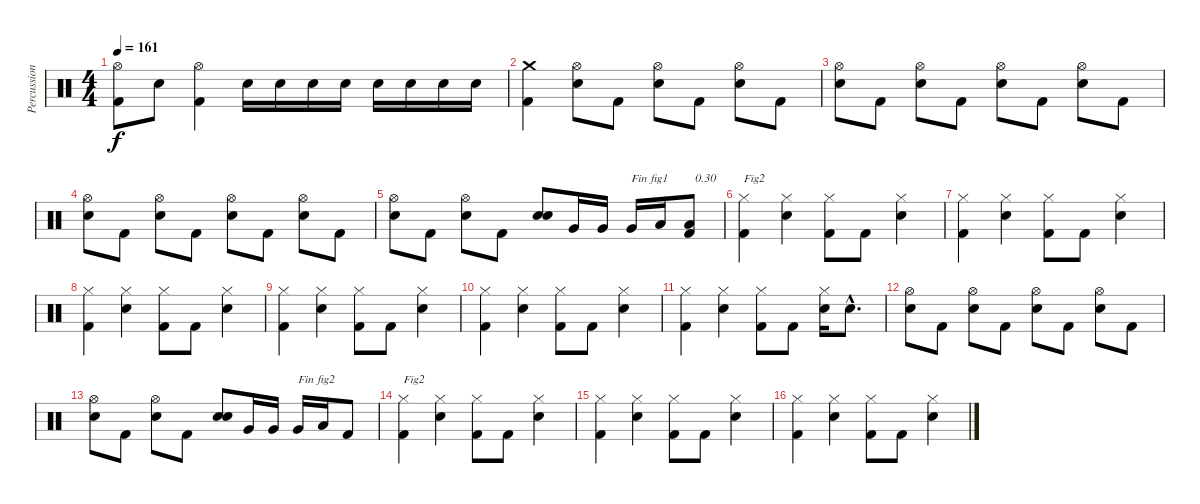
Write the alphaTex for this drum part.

\track ("Percussions" "Percussion") {instrument percussion}
\staff {score}
\articulation defaults
\ts (4 4)
\tempo 161
\clef neutral
\ks c
("Kick (hit) 2" "Hi-Hat (open)").8{dy f} "Electric Snare (hit)".8 ("Kick (hit) 2" "Hi-Hat (open)").4 "Electric Snare (hit)".16 "Electric Snare (hit)".16 "Electric Snare (hit)".16 "Electric Snare (hit)".16 "Electric Snare (hit)".16 "Electric Snare (hit)".16 "Electric Snare (hit)".16 "Electric Snare (hit)".16 |
("Kick (hit) 2" "Crash medium (hit)").4 ("Electric Snare (hit)" "Hi-Hat (open)").8 "Kick (hit) 2".8 ("Electric Snare (hit)" "Hi-Hat (open)").8 "Kick (hit) 2".8 ("Electric Snare (hit)" "Hi-Hat (open)").8 "Kick (hit) 2".8 |
("Electric Snare (hit)" "Hi-Hat (open)").8 "Kick (hit) 2".8 ("Electric Snare (hit)" "Hi-Hat (open)").8 "Kick (hit) 2".8 ("Electric Snare (hit)" "Hi-Hat (open)").8 "Kick (hit) 2".8 ("Electric Snare (hit)" "Hi-Hat (open)").8 "Kick (hit) 2".8 |
("Electric Snare (hit)" "Hi-Hat (open)").8 "Kick (hit) 2".8 ("Electric Snare (hit)" "Hi-Hat (open)").8 "Kick (hit) 2".8 ("Electric Snare (hit)" "Hi-Hat (open)").8 "Kick (hit) 2".8 ("Electric Snare (hit)" "Hi-Hat (open)").8 "Kick (hit) 2".8 |
("Electric Snare (hit)" "Hi-Hat (open)").8 "Kick (hit) 2".8 ("Electric Snare (hit)" "Hi-Hat (open)").8 "Kick (hit) 2".8 ("Electric Snare (hit)" "Electric Snare (hit)").8 "Very Low Tom (hit)".16 "Very Low Tom (hit)".16 "Very Low Tom (hit)".16{txt "Fin fig1"} "Low Tom (hit)".16 ("Kick (hit) 2" "Low Tom (hit)").8{txt "  0.30"} |
("Kick (hit) 2" "Hi-Hat (closed)").4{txt "Fig2"} ("Electric Snare (hit)" "Hi-Hat (closed)").4 ("Kick (hit) 2" "Hi-Hat (closed)").8 "Kick (hit) 2".8 ("Electric Snare (hit)" "Hi-Hat (closed)").4 |
("Kick (hit) 2" "Hi-Hat (closed)").4 ("Electric Snare (hit)" "Hi-Hat (closed)").4 ("Kick (hit) 2" "Hi-Hat (closed)").8 "Kick (hit) 2".8 ("Electric Snare (hit)" "Hi-Hat (closed)").4 |
("Kick (hit) 2" "Hi-Hat (closed)").4 ("Electric Snare (hit)" "Hi-Hat (closed)").4 ("Kick (hit) 2" "Hi-Hat (closed)").8 "Kick (hit) 2".8 ("Electric Snare (hit)" "Hi-Hat (closed)").4 |
("Kick (hit) 2" "Hi-Hat (closed)").4 ("Electric Snare (hit)" "Hi-Hat (closed)").4 ("Kick (hit) 2" "Hi-Hat (closed)").8 "Kick (hit) 2".8 ("Electric Snare (hit)" "Hi-Hat (closed)").4 |
("Kick (hit) 2" "Hi-Hat (closed)").4 ("Electric Snare (hit)" "Hi-Hat (closed)").4 ("Kick (hit) 2" "Hi-Hat (closed)").8 "Kick (hit) 2".8 ("Electric Snare (hit)" "Hi-Hat (closed)").4 |
("Kick (hit) 2" "Hi-Hat (closed)").4 ("Electric Snare (hit)" "Hi-Hat (closed)").4 ("Kick (hit) 2" "Hi-Hat (closed)").8 "Kick (hit) 2".8 ("Electric Snare (hit)" "Hi-Hat (closed)").16 "Electric Snare (hit)"{hac}.8{d} |
("Electric Snare (hit)" "Hi-Hat (open)").8 "Kick (hit) 2".8 ("Electric Snare (hit)" "Hi-Hat (open)").8 "Kick (hit) 2".8 ("Electric Snare (hit)" "Hi-Hat (open)").8 "Kick (hit) 2".8 ("Electric Snare (hit)" "Hi-Hat (open)").8 "Kick (hit) 2".8 |
("Electric Snare (hit)" "Hi-Hat (open)").8 "Kick (hit) 2".8 ("Electric Snare (hit)" "Hi-Hat (open)").8 "Kick (hit) 2".8 ("Electric Snare (hit)" "Electric Snare (hit)").8 "Very Low Tom (hit)".16 "Very Low Tom (hit)".16 "Very Low Tom (hit)".16{txt "Fin fig2"} "Low Tom (hit)".16 "Kick (hit) 2".8 |
("Kick (hit) 2" "Hi-Hat (closed)").4{txt "Fig2"} ("Electric Snare (hit)" "Hi-Hat (closed)").4 ("Kick (hit) 2" "Hi-Hat (closed)").8 "Kick (hit) 2".8 ("Electric Snare (hit)" "Hi-Hat (closed)").4 |
("Kick (hit) 2" "Hi-Hat (closed)").4 ("Electric Snare (hit)" "Hi-Hat (closed)").4 ("Kick (hit) 2" "Hi-Hat (closed)").8 "Kick (hit) 2".8 ("Electric Snare (hit)" "Hi-Hat (closed)").4 |
("Kick (hit) 2" "Hi-Hat (closed)").4 ("Electric Snare (hit)" "Hi-Hat (closed)").4 ("Kick (hit) 2" "Hi-Hat (closed)").8 "Kick (hit) 2".8 ("Electric Snare (hit)" "Hi-Hat (closed)").4
